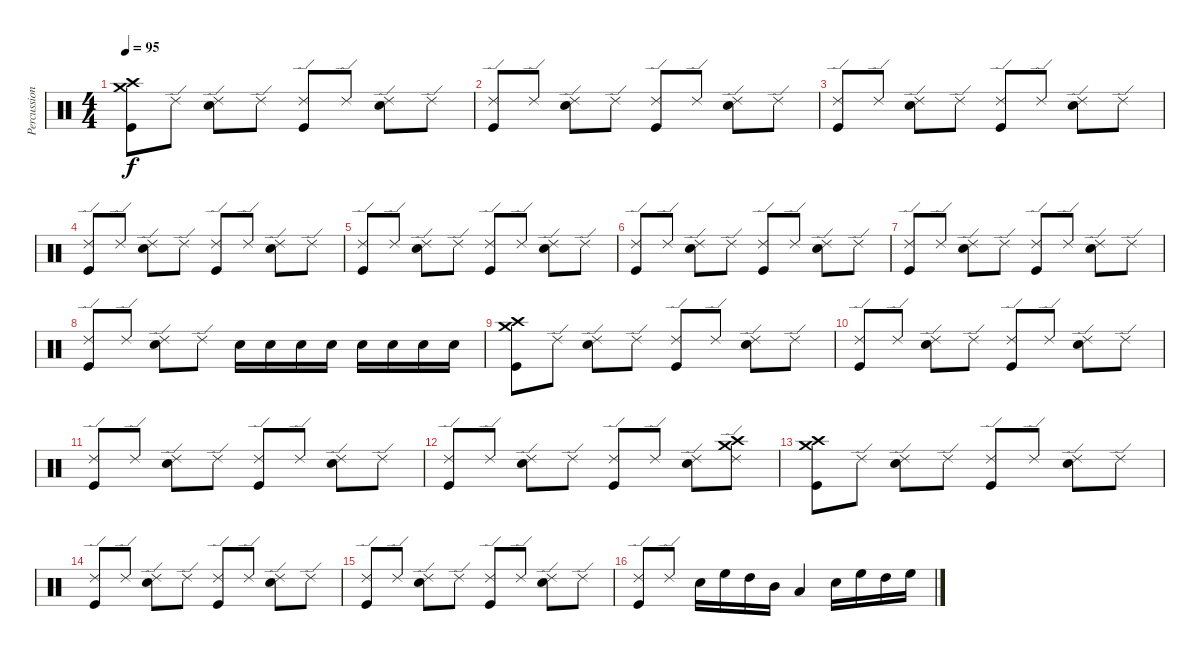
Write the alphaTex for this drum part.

\track ("Percussion" "Percussion") {instrument percussion}
\staff {score}
\articulation defaults
\ts (4 4)
\tempo 95
\clef neutral
\ks c
("Crash medium (hit)" "Crash high (hit)" "Kick (hit)").8{dy f} "Ride (edge) 2".8 ("Ride (edge) 2" "Electric Snare (hit)").8 "Ride (edge) 2".8 ("Ride (edge) 2" "Kick (hit)").8 "Ride (edge) 2".8 ("Ride (edge) 2" "Electric Snare (hit)").8 "Ride (edge) 2".8 |
("Ride (edge) 2" "Kick (hit)").8 "Ride (edge) 2".8 ("Ride (edge) 2" "Electric Snare (hit)").8 "Ride (edge) 2".8 ("Ride (edge) 2" "Kick (hit)").8 "Ride (edge) 2".8 ("Ride (edge) 2" "Electric Snare (hit)").8 "Ride (edge) 2".8 |
("Ride (edge) 2" "Kick (hit)").8 "Ride (edge) 2".8 ("Ride (edge) 2" "Electric Snare (hit)").8 "Ride (edge) 2".8 ("Ride (edge) 2" "Kick (hit)").8 "Ride (edge) 2".8 ("Ride (edge) 2" "Electric Snare (hit)").8 "Ride (edge) 2".8 |
("Ride (edge) 2" "Kick (hit)").8 "Ride (edge) 2".8 ("Ride (edge) 2" "Electric Snare (hit)").8 "Ride (edge) 2".8 ("Ride (edge) 2" "Kick (hit)").8 "Ride (edge) 2".8 ("Ride (edge) 2" "Electric Snare (hit)").8 "Ride (edge) 2".8 |
("Ride (edge) 2" "Kick (hit)").8 "Ride (edge) 2".8 ("Ride (edge) 2" "Electric Snare (hit)").8 "Ride (edge) 2".8 ("Ride (edge) 2" "Kick (hit)").8 "Ride (edge) 2".8 ("Ride (edge) 2" "Electric Snare (hit)").8 "Ride (edge) 2".8 |
("Ride (edge) 2" "Kick (hit)").8 "Ride (edge) 2".8 ("Ride (edge) 2" "Electric Snare (hit)").8 "Ride (edge) 2".8 ("Ride (edge) 2" "Kick (hit)").8 "Ride (edge) 2".8 ("Ride (edge) 2" "Electric Snare (hit)").8 "Ride (edge) 2".8 |
("Ride (edge) 2" "Kick (hit)").8 "Ride (edge) 2".8 ("Ride (edge) 2" "Electric Snare (hit)").8 "Ride (edge) 2".8 ("Ride (edge) 2" "Kick (hit)").8 "Ride (edge) 2".8 ("Ride (edge) 2" "Electric Snare (hit)").8 "Ride (edge) 2".8 |
("Ride (edge) 2" "Kick (hit)").8 "Ride (edge) 2".8 ("Ride (edge) 2" "Electric Snare (hit)").8 "Ride (edge) 2".8 "Snare (hit) 2".16 "Snare (hit) 2".16 "Snare (hit) 2".16 "Snare (hit) 2".16 "Snare (hit) 2".16 "Snare (hit) 2".16 "Snare (hit) 2".16 "Snare (hit) 2".16 |
("Crash medium (hit)" "Crash high (hit)" "Kick (hit)").8 "Ride (edge) 2".8 ("Ride (edge) 2" "Electric Snare (hit)").8 "Ride (edge) 2".8 ("Ride (edge) 2" "Kick (hit)").8 "Ride (edge) 2".8 ("Ride (edge) 2" "Electric Snare (hit)").8 "Ride (edge) 2".8 |
("Ride (edge) 2" "Kick (hit)").8 "Ride (edge) 2".8 ("Ride (edge) 2" "Electric Snare (hit)").8 "Ride (edge) 2".8 ("Ride (edge) 2" "Kick (hit)").8 "Ride (edge) 2".8 ("Ride (edge) 2" "Electric Snare (hit)").8 "Ride (edge) 2".8 |
("Ride (edge) 2" "Kick (hit)").8 "Ride (edge) 2".8 ("Ride (edge) 2" "Electric Snare (hit)").8 "Ride (edge) 2".8 ("Ride (edge) 2" "Kick (hit)").8 "Ride (edge) 2".8 ("Ride (edge) 2" "Electric Snare (hit)").8 "Ride (edge) 2".8 |
("Ride (edge) 2" "Kick (hit)").8 "Ride (edge) 2".8 ("Ride (edge) 2" "Electric Snare (hit)").8 "Ride (edge) 2".8 ("Ride (edge) 2" "Kick (hit)").8 "Ride (edge) 2".8 ("Ride (edge) 2" "Electric Snare (hit)").8 ("Ride (edge) 2" "Crash medium (hit)" "Crash high (hit)").8 |
("Crash high (hit)" "Crash medium (hit)" "Kick (hit)").8 "Ride (edge) 2".8 ("Ride (edge) 2" "Electric Snare (hit)").8 "Ride (edge) 2".8 ("Ride (edge) 2" "Kick (hit)").8 "Ride (edge) 2".8 ("Ride (edge) 2" "Electric Snare (hit)").8 "Ride (edge) 2".8 |
("Ride (edge) 2" "Kick (hit)").8 "Ride (edge) 2".8 ("Ride (edge) 2" "Electric Snare (hit)").8 "Ride (edge) 2".8 ("Ride (edge) 2" "Kick (hit)").8 "Ride (edge) 2".8 ("Ride (edge) 2" "Electric Snare (hit)").8 "Ride (edge) 2".8 |
("Ride (edge) 2" "Kick (hit)").8 "Ride (edge) 2".8 ("Ride (edge) 2" "Electric Snare (hit)").8 "Ride (edge) 2".8 ("Ride (edge) 2" "Kick (hit)").8 "Ride (edge) 2".8 ("Ride (edge) 2" "Electric Snare (hit)").8 "Ride (edge) 2".8 |
("Ride (edge) 2" "Kick (hit)").8 "Ride (edge) 2".8 "Snare (hit) 2".16 "High Floor Tom (hit)".16 "High Tom (hit)".16 "Mid Tom (hit)".16 "Low Tom (hit)".4 "Snare (hit) 2".16 "High Floor Tom (hit)".16 "High Tom (hit)".16 "High Floor Tom (hit)".16
